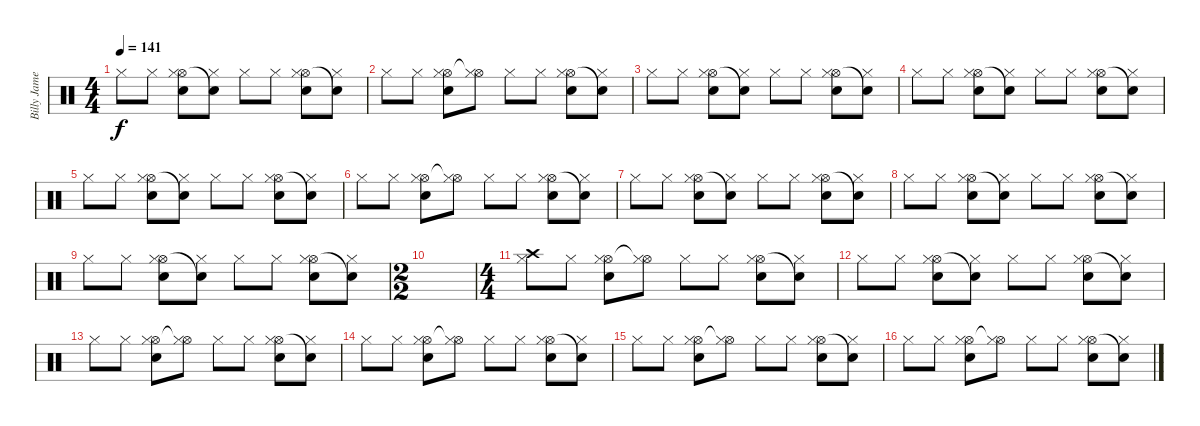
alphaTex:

\track ("Billy James (Drums)" "Billy Jame") {instrument percussion}
\staff {score}
\articulation defaults
\ts (4 4)
\tempo 141
\clef neutral
\ks c "Hi-Hat (closed)".8{dy f} "Hi-Hat (closed)".8
("Hi-Hat (open)" "Snare (hit) 2" "Hi-Hat (closed)").8 ("Snare (hit)"{t} "Hi-Hat (closed)").8 "Hi-Hat (closed)".8 "Hi-Hat (closed)".8 ("Hi-Hat (open)" "Snare (hit) 2" "Hi-Hat (closed)").8 ("Snare (hit)"{t} "Hi-Hat (closed)").8 |
"Hi-Hat (closed)".8 "Hi-Hat (closed)".8 ("Hi-Hat (open)" "Snare (hit) 2" "Hi-Hat (closed)").8 ("Hi-Hat (open)"{t} "Hi-Hat (closed)").8 "Hi-Hat (closed)".8 "Hi-Hat (closed)".8 ("Hi-Hat (open)" "Snare (hit) 2" "Hi-Hat (closed)").8 ("Snare (hit)"{t} "Hi-Hat (closed)").8 |
"Hi-Hat (closed)".8 "Hi-Hat (closed)".8 ("Hi-Hat (open)" "Snare (hit) 2" "Hi-Hat (closed)").8 ("Snare (hit)"{t} "Hi-Hat (closed)").8 "Hi-Hat (closed)".8 "Hi-Hat (closed)".8 ("Hi-Hat (open)" "Snare (hit) 2" "Hi-Hat (closed)").8 ("Snare (hit)"{t} "Hi-Hat (closed)").8 |
"Hi-Hat (closed)".8 "Hi-Hat (closed)".8 ("Hi-Hat (open)" "Snare (hit) 2" "Hi-Hat (closed)").8 ("Snare (hit)"{t} "Hi-Hat (closed)").8 "Hi-Hat (closed)".8 "Hi-Hat (closed)".8 ("Hi-Hat (open)" "Snare (hit) 2" "Hi-Hat (closed)").8 ("Snare (hit)"{t} "Hi-Hat (closed)").8 |
"Hi-Hat (closed)".8 "Hi-Hat (closed)".8 ("Hi-Hat (open)" "Snare (hit) 2" "Hi-Hat (closed)").8 ("Snare (hit)"{t} "Hi-Hat (closed)").8 "Hi-Hat (closed)".8 "Hi-Hat (closed)".8 ("Hi-Hat (open)" "Snare (hit) 2" "Hi-Hat (closed)").8 ("Snare (hit)"{t} "Hi-Hat (closed)").8 |
"Hi-Hat (closed)".8 "Hi-Hat (closed)".8 ("Hi-Hat (open)" "Snare (hit) 2" "Hi-Hat (closed)").8 ("Hi-Hat (open)"{t} "Hi-Hat (closed)").8 "Hi-Hat (closed)".8 "Hi-Hat (closed)".8 ("Hi-Hat (open)" "Snare (hit) 2" "Hi-Hat (closed)").8 ("Snare (hit)"{t} "Hi-Hat (closed)").8 |
"Hi-Hat (closed)".8 "Hi-Hat (closed)".8 ("Hi-Hat (open)" "Snare (hit) 2" "Hi-Hat (closed)").8 ("Snare (hit)"{t} "Hi-Hat (closed)").8 "Hi-Hat (closed)".8 "Hi-Hat (closed)".8 ("Hi-Hat (open)" "Snare (hit) 2" "Hi-Hat (closed)").8 ("Snare (hit)"{t} "Hi-Hat (closed)").8 |
"Hi-Hat (closed)".8 "Hi-Hat (closed)".8 ("Hi-Hat (open)" "Snare (hit) 2" "Hi-Hat (closed)").8 ("Snare (hit)"{t} "Hi-Hat (closed)").8 "Hi-Hat (closed)".8 "Hi-Hat (closed)".8 ("Hi-Hat (open)" "Snare (hit) 2" "Hi-Hat (closed)").8 ("Snare (hit)"{t} "Hi-Hat (closed)").8 |
"Hi-Hat (closed)".8 "Hi-Hat (closed)".8 ("Hi-Hat (open)" "Snare (hit) 2" "Hi-Hat (closed)").8 ("Snare (hit)"{t} "Hi-Hat (closed)").8 "Hi-Hat (closed)".8 "Hi-Hat (closed)".8 ("Hi-Hat (open)" "Snare (hit) 2" "Hi-Hat (closed)").8 ("Snare (hit)"{t} "Hi-Hat (closed)").8 |
\ts (2 2)
|
\ts (4 4)
("Crash high (hit)" "Hi-Hat (closed)").8 "Hi-Hat (closed)".8 ("Hi-Hat (open)" "Snare (hit) 2" "Hi-Hat (closed)").8 ("Hi-Hat (open)"{t} "Hi-Hat (closed)").8 "Hi-Hat (closed)".8 "Hi-Hat (closed)".8 ("Hi-Hat (open)" "Snare (hit) 2" "Hi-Hat (closed)").8 ("Snare (hit)"{t} "Hi-Hat (closed)").8 |
"Hi-Hat (closed)".8 "Hi-Hat (closed)".8 ("Hi-Hat (open)" "Snare (hit) 2" "Hi-Hat (closed)").8 ("Snare (hit)"{t} "Hi-Hat (closed)").8 "Hi-Hat (closed)".8 "Hi-Hat (closed)".8 ("Hi-Hat (open)" "Snare (hit) 2" "Hi-Hat (closed)").8 ("Snare (hit)"{t} "Hi-Hat (closed)").8 |
"Hi-Hat (closed)".8 "Hi-Hat (closed)".8 ("Hi-Hat (open)" "Snare (hit) 2" "Hi-Hat (closed)").8 ("Hi-Hat (open)"{t} "Hi-Hat (closed)").8 "Hi-Hat (closed)".8 "Hi-Hat (closed)".8 ("Hi-Hat (open)" "Snare (hit) 2" "Hi-Hat (closed)").8 ("Snare (hit)"{t} "Hi-Hat (closed)").8 |
"Hi-Hat (closed)".8 "Hi-Hat (closed)".8 ("Hi-Hat (open)" "Snare (hit) 2" "Hi-Hat (closed)").8 ("Hi-Hat (open)"{t} "Hi-Hat (closed)").8 "Hi-Hat (closed)".8 "Hi-Hat (closed)".8 ("Hi-Hat (open)" "Snare (hit) 2" "Hi-Hat (closed)").8 ("Snare (hit)"{t} "Hi-Hat (closed)").8 |
"Hi-Hat (closed)".8 "Hi-Hat (closed)".8 ("Hi-Hat (open)" "Snare (hit) 2" "Hi-Hat (closed)").8 ("Hi-Hat (open)"{t} "Hi-Hat (closed)").8 "Hi-Hat (closed)".8 "Hi-Hat (closed)".8 ("Hi-Hat (open)" "Snare (hit) 2" "Hi-Hat (closed)").8 ("Snare (hit)"{t} "Hi-Hat (closed)").8 |
"Hi-Hat (closed)".8 "Hi-Hat (closed)".8 ("Hi-Hat (open)" "Snare (hit) 2" "Hi-Hat (closed)").8 ("Hi-Hat (open)"{t} "Hi-Hat (closed)").8 "Hi-Hat (closed)".8 "Hi-Hat (closed)".8 ("Hi-Hat (open)" "Snare (hit) 2" "Hi-Hat (closed)").8 ("Snare (hit)"{t} "Hi-Hat (closed)").8
